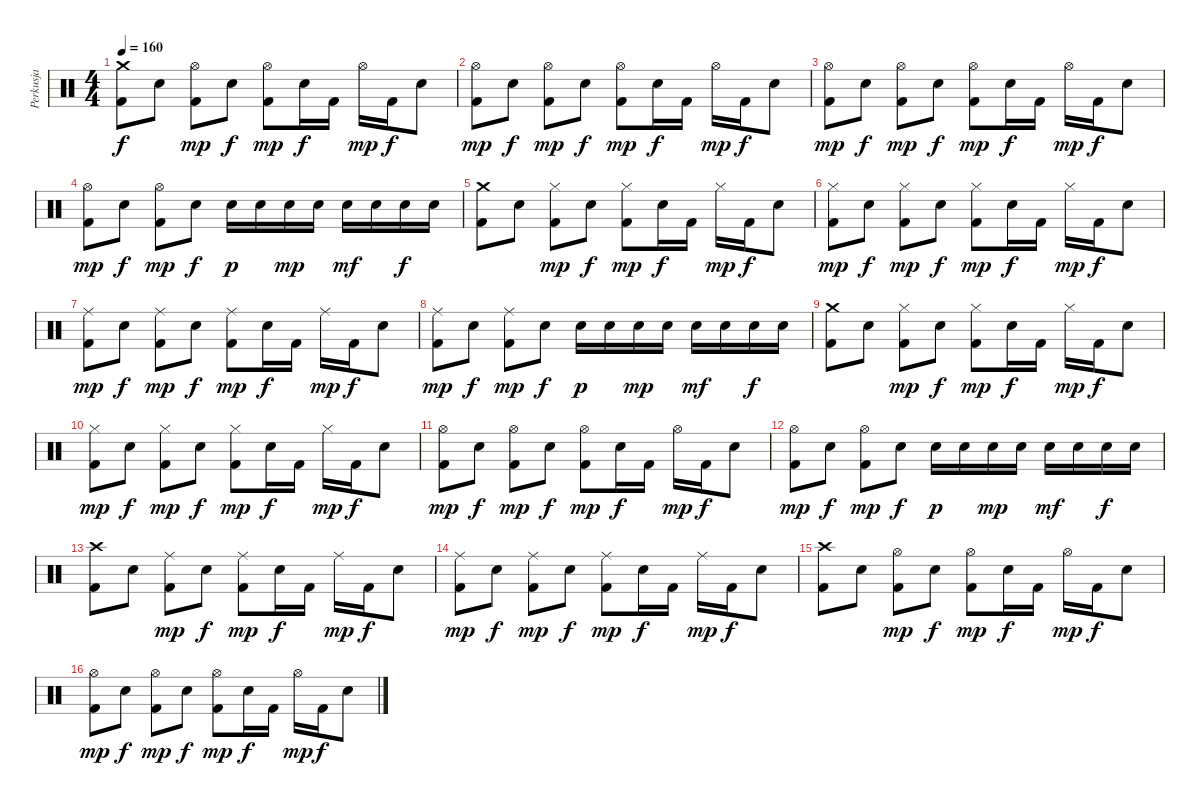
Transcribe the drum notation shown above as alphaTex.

\track ("Perkusja" "Perkusja") {instrument percussion}
\staff {score}
\articulation defaults
\ts (4 4)
\tempo 160
\clef neutral
\ks c
("Kick (hit) 2" "Crash medium (hit)").8{dy f} "Electric Snare (hit)".8 ("Kick (hit) 2" "Hi-Hat (open)").8{dy mp} "Electric Snare (hit)".8{dy f} ("Kick (hit) 2" "Hi-Hat (open)").8{dy mp} "Electric Snare (hit)".16{dy f} "Kick (hit) 2".16 "Hi-Hat (open)".16{dy mp} "Kick (hit) 2".16{dy f} "Electric Snare (hit)".8 |
("Kick (hit) 2" "Hi-Hat (open)").8{dy mp} "Electric Snare (hit)".8{dy f} ("Kick (hit) 2" "Hi-Hat (open)").8{dy mp} "Electric Snare (hit)".8{dy f} ("Kick (hit) 2" "Hi-Hat (open)").8{dy mp} "Electric Snare (hit)".16{dy f} "Kick (hit) 2".16 "Hi-Hat (open)".16{dy mp} "Kick (hit) 2".16{dy f} "Electric Snare (hit)".8 |
("Kick (hit) 2" "Hi-Hat (open)").8{dy mp} "Electric Snare (hit)".8{dy f} ("Kick (hit) 2" "Hi-Hat (open)").8{dy mp} "Electric Snare (hit)".8{dy f} ("Kick (hit) 2" "Hi-Hat (open)").8{dy mp} "Electric Snare (hit)".16{dy f} "Kick (hit) 2".16 "Hi-Hat (open)".16{dy mp} "Kick (hit) 2".16{dy f} "Electric Snare (hit)".8 |
("Kick (hit) 2" "Hi-Hat (open)").8{dy mp} "Electric Snare (hit)".8{dy f} ("Kick (hit) 2" "Hi-Hat (open)").8{dy mp} "Electric Snare (hit)".8{dy f} "Electric Snare (hit)".16{dy p} "Electric Snare (hit)".16 "Electric Snare (hit)".16{dy mp} "Electric Snare (hit)".16 "Electric Snare (hit)".16{dy mf} "Electric Snare (hit)".16 "Electric Snare (hit)".16{dy f} "Electric Snare (hit)".16 |
("Kick (hit) 2" "Crash medium (hit)").8 "Electric Snare (hit)".8 ("Kick (hit) 2" "Hi-Hat (closed)").8{dy mp} "Electric Snare (hit)".8{dy f} ("Kick (hit) 2" "Hi-Hat (closed)").8{dy mp} "Electric Snare (hit)".16{dy f} "Kick (hit) 2".16 "Hi-Hat (closed)".16{dy mp} "Kick (hit) 2".16{dy f} "Electric Snare (hit)".8 |
("Kick (hit) 2" "Hi-Hat (closed)").8{dy mp} "Electric Snare (hit)".8{dy f} ("Kick (hit) 2" "Hi-Hat (closed)").8{dy mp} "Electric Snare (hit)".8{dy f} ("Kick (hit) 2" "Hi-Hat (closed)").8{dy mp} "Electric Snare (hit)".16{dy f} "Kick (hit) 2".16 "Hi-Hat (closed)".16{dy mp} "Kick (hit) 2".16{dy f} "Electric Snare (hit)".8 |
("Kick (hit) 2" "Ride (middle)").8{dy mp} "Electric Snare (hit)".8{dy f} ("Kick (hit) 2" "Ride (middle)").8{dy mp} "Electric Snare (hit)".8{dy f} ("Kick (hit) 2" "Ride (middle)").8{dy mp} "Electric Snare (hit)".16{dy f} "Kick (hit) 2".16 "Ride (middle)".16{dy mp} "Kick (hit) 2".16{dy f} "Electric Snare (hit)".8 |
("Kick (hit) 2" "Ride (middle)").8{dy mp} "Electric Snare (hit)".8{dy f} ("Kick (hit) 2" "Ride (middle)").8{dy mp} "Electric Snare (hit)".8{dy f} "Electric Snare (hit)".16{dy p} "Electric Snare (hit)".16 "Electric Snare (hit)".16{dy mp} "Electric Snare (hit)".16 "Electric Snare (hit)".16{dy mf} "Electric Snare (hit)".16 "Electric Snare (hit)".16{dy f} "Electric Snare (hit)".16 |
("Kick (hit) 2" "Crash medium (hit)").8 "Electric Snare (hit)".8 ("Kick (hit) 2" "Hi-Hat (closed)").8{dy mp} "Electric Snare (hit)".8{dy f} ("Kick (hit) 2" "Hi-Hat (closed)").8{dy mp} "Electric Snare (hit)".16{dy f} "Kick (hit) 2".16 "Hi-Hat (closed)".16{dy mp} "Kick (hit) 2".16{dy f} "Electric Snare (hit)".8 |
("Kick (hit) 2" "Hi-Hat (closed)").8{dy mp} "Electric Snare (hit)".8{dy f} ("Kick (hit) 2" "Hi-Hat (closed)").8{dy mp} "Electric Snare (hit)".8{dy f} ("Kick (hit) 2" "Hi-Hat (closed)").8{dy mp} "Electric Snare (hit)".16{dy f} "Kick (hit) 2".16 "Hi-Hat (closed)".16{dy mp} "Kick (hit) 2".16{dy f} "Electric Snare (hit)".8 |
("Kick (hit) 2" "Hi-Hat (open)").8{dy mp} "Electric Snare (hit)".8{dy f} ("Kick (hit) 2" "Hi-Hat (open)").8{dy mp} "Electric Snare (hit)".8{dy f} ("Kick (hit) 2" "Hi-Hat (open)").8{dy mp} "Electric Snare (hit)".16{dy f} "Kick (hit) 2".16 "Hi-Hat (open)".16{dy mp} "Kick (hit) 2".16{dy f} "Electric Snare (hit)".8 |
("Kick (hit) 2" "Hi-Hat (open)").8{dy mp} "Electric Snare (hit)".8{dy f} ("Kick (hit) 2" "Hi-Hat (open)").8{dy mp} "Electric Snare (hit)".8{dy f} "Electric Snare (hit)".16{dy p} "Electric Snare (hit)".16 "Electric Snare (hit)".16{dy mp} "Electric Snare (hit)".16 "Electric Snare (hit)".16{dy mf} "Electric Snare (hit)".16 "Electric Snare (hit)".16{dy f} "Electric Snare (hit)".16 |
("Kick (hit) 2" "Crash high (hit)").8 "Electric Snare (hit)".8 ("Kick (hit) 2" "Ride (middle)").8{dy mp} "Electric Snare (hit)".8{dy f} ("Kick (hit) 2" "Ride (middle)").8{dy mp} "Electric Snare (hit)".16{dy f} "Kick (hit) 2".16 "Ride (middle)".16{dy mp} "Kick (hit) 2".16{dy f} "Electric Snare (hit)".8 |
("Kick (hit) 2" "Ride (middle)").8{dy mp} "Electric Snare (hit)".8{dy f} ("Kick (hit) 2" "Ride (middle)").8{dy mp} "Electric Snare (hit)".8{dy f} ("Kick (hit) 2" "Ride (middle)").8{dy mp} "Electric Snare (hit)".16{dy f} "Kick (hit) 2".16 "Ride (middle)".16{dy mp} "Kick (hit) 2".16{dy f} "Electric Snare (hit)".8 |
("Kick (hit) 2" "Crash high (hit)").8 "Electric Snare (hit)".8 ("Kick (hit) 2" "Hi-Hat (open)").8{dy mp} "Electric Snare (hit)".8{dy f} ("Kick (hit) 2" "Hi-Hat (open)").8{dy mp} "Electric Snare (hit)".16{dy f} "Kick (hit) 2".16 "Hi-Hat (open)".16{dy mp} "Kick (hit) 2".16{dy f} "Electric Snare (hit)".8 |
("Kick (hit) 2" "Hi-Hat (open)").8{dy mp} "Electric Snare (hit)".8{dy f} ("Kick (hit) 2" "Hi-Hat (open)").8{dy mp} "Electric Snare (hit)".8{dy f} ("Kick (hit) 2" "Hi-Hat (open)").8{dy mp} "Electric Snare (hit)".16{dy f} "Kick (hit) 2".16 "Hi-Hat (open)".16{dy mp} "Kick (hit) 2".16{dy f} "Electric Snare (hit)".8
